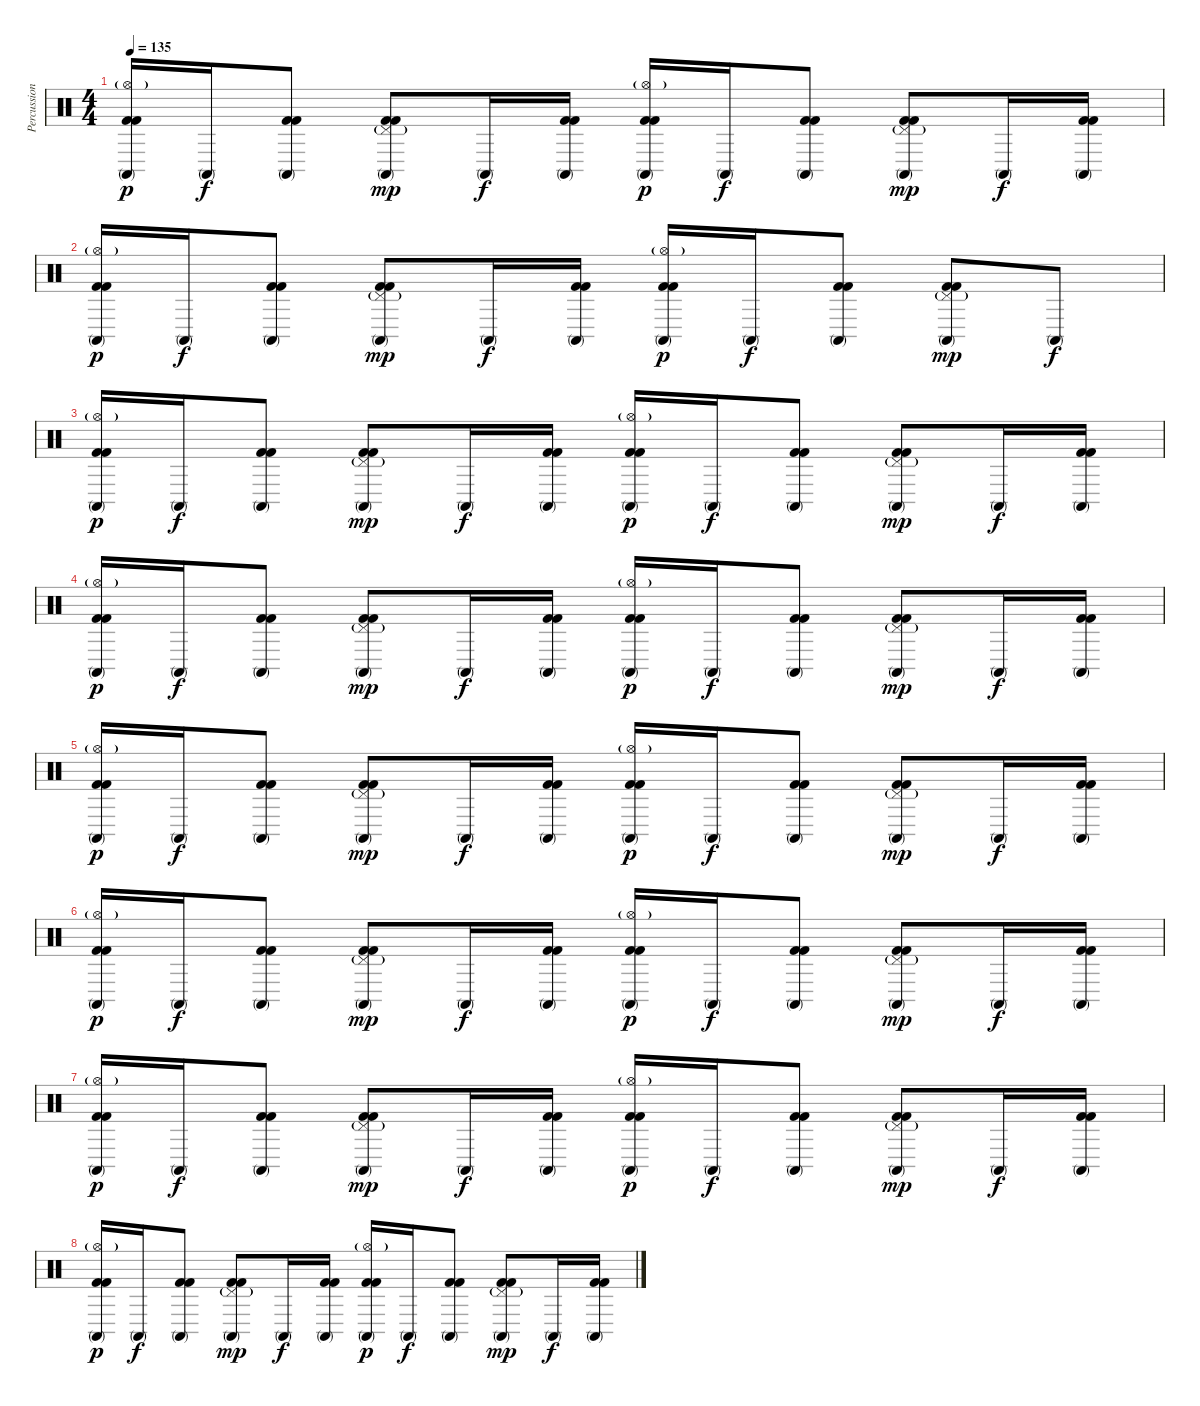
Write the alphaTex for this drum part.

\track ("Percussion" "Percussion") {instrument percussion}
\staff {score}
\articulation defaults
\ts (4 4)
\tempo 135
\clef neutral
\ks c
("Conga high (mute)" "Hi-Hat (open)"{g} "Kick (hit) 2" "Kick (hit) 2").16{dy p} "Conga high (mute)".16{dy f} ("Conga high (mute)" "Kick (hit) 2" "Kick (hit) 2").8 ("Conga high (mute)" "Pedal Hi-Hat (hit)"{g} "Kick (hit) 2" "Kick (hit) 2").8{dy mp} "Conga high (mute)".16{dy f} ("Conga high (mute)" "Kick (hit) 2" "Kick (hit) 2").16 ("Conga high (mute)" "Hi-Hat (open)"{g} "Kick (hit) 2" "Kick (hit) 2").16{dy p} "Conga high (mute)".16{dy f} ("Conga high (mute)" "Kick (hit) 2" "Kick (hit) 2").8 ("Conga high (mute)" "Pedal Hi-Hat (hit)"{g} "Kick (hit) 2" "Kick (hit) 2").8{dy mp} "Conga high (mute)".16{dy f} ("Conga high (mute)" "Kick (hit) 2" "Kick (hit) 2").16 |
("Conga high (mute)" "Hi-Hat (open)"{g} "Kick (hit) 2" "Kick (hit) 2").16{dy p} "Conga high (mute)".16{dy f} ("Conga high (mute)" "Kick (hit) 2" "Kick (hit) 2").8 ("Conga high (mute)" "Pedal Hi-Hat (hit)"{g} "Kick (hit) 2" "Kick (hit) 2").8{dy mp} "Conga high (mute)".16{dy f} ("Conga high (mute)" "Kick (hit) 2" "Kick (hit) 2").16 ("Conga high (mute)" "Hi-Hat (open)"{g} "Kick (hit) 2" "Kick (hit) 2").16{dy p} "Conga high (mute)".16{dy f} ("Conga high (mute)" "Kick (hit) 2" "Kick (hit) 2").8 ("Conga high (mute)" "Pedal Hi-Hat (hit)"{g} "Kick (hit) 2" "Kick (hit) 2").8{dy mp} "Conga high (mute)".8{dy f} |
("Conga high (mute)" "Hi-Hat (open)"{g} "Kick (hit) 2" "Kick (hit) 2").16{dy p} "Conga high (mute)".16{dy f} ("Conga high (mute)" "Kick (hit) 2" "Kick (hit) 2").8 ("Conga high (mute)" "Pedal Hi-Hat (hit)"{g} "Kick (hit) 2" "Kick (hit) 2").8{dy mp} "Conga high (mute)".16{dy f} ("Conga high (mute)" "Kick (hit) 2" "Kick (hit) 2").16 ("Conga high (mute)" "Hi-Hat (open)"{g} "Kick (hit) 2" "Kick (hit) 2").16{dy p} "Conga high (mute)".16{dy f} ("Conga high (mute)" "Kick (hit) 2" "Kick (hit) 2").8 ("Conga high (mute)" "Pedal Hi-Hat (hit)"{g} "Kick (hit) 2" "Kick (hit) 2").8{dy mp} "Conga high (mute)".16{dy f} ("Conga high (mute)" "Kick (hit) 2" "Kick (hit) 2").16 |
("Conga high (mute)" "Hi-Hat (open)"{g} "Kick (hit) 2" "Kick (hit) 2").16{dy p} "Conga high (mute)".16{dy f} ("Conga high (mute)" "Kick (hit) 2" "Kick (hit) 2").8 ("Conga high (mute)" "Pedal Hi-Hat (hit)"{g} "Kick (hit) 2" "Kick (hit) 2").8{dy mp} "Conga high (mute)".16{dy f} ("Conga high (mute)" "Kick (hit) 2" "Kick (hit) 2").16 ("Conga high (mute)" "Hi-Hat (open)"{g} "Kick (hit) 2" "Kick (hit) 2").16{dy p} "Conga high (mute)".16{dy f} ("Conga high (mute)" "Kick (hit) 2" "Kick (hit) 2").8 ("Conga high (mute)" "Pedal Hi-Hat (hit)"{g} "Kick (hit) 2" "Kick (hit) 2").8{dy mp} "Conga high (mute)".16{dy f} ("Conga high (mute)" "Kick (hit) 2" "Kick (hit) 2").16 |
("Conga high (mute)" "Hi-Hat (open)"{g} "Kick (hit) 2" "Kick (hit) 2").16{dy p} "Conga high (mute)".16{dy f} ("Conga high (mute)" "Kick (hit) 2" "Kick (hit) 2").8 ("Conga high (mute)" "Pedal Hi-Hat (hit)"{g} "Kick (hit) 2" "Kick (hit) 2").8{dy mp} "Conga high (mute)".16{dy f} ("Conga high (mute)" "Kick (hit) 2" "Kick (hit) 2").16 ("Conga high (mute)" "Hi-Hat (open)"{g} "Kick (hit) 2" "Kick (hit) 2").16{dy p} "Conga high (mute)".16{dy f} ("Conga high (mute)" "Kick (hit) 2" "Kick (hit) 2").8 ("Conga high (mute)" "Pedal Hi-Hat (hit)"{g} "Kick (hit) 2" "Kick (hit) 2").8{dy mp} "Conga high (mute)".16{dy f} ("Conga high (mute)" "Kick (hit) 2" "Kick (hit) 2").16 |
("Conga high (mute)" "Hi-Hat (open)"{g} "Kick (hit) 2" "Kick (hit) 2").16{dy p} "Conga high (mute)".16{dy f} ("Conga high (mute)" "Kick (hit) 2" "Kick (hit) 2").8 ("Conga high (mute)" "Pedal Hi-Hat (hit)"{g} "Kick (hit) 2" "Kick (hit) 2").8{dy mp} "Conga high (mute)".16{dy f} ("Conga high (mute)" "Kick (hit) 2" "Kick (hit) 2").16 ("Conga high (mute)" "Hi-Hat (open)"{g} "Kick (hit) 2" "Kick (hit) 2").16{dy p} "Conga high (mute)".16{dy f} ("Conga high (mute)" "Kick (hit) 2" "Kick (hit) 2").8 ("Conga high (mute)" "Pedal Hi-Hat (hit)"{g} "Kick (hit) 2" "Kick (hit) 2").8{dy mp} "Conga high (mute)".16{dy f} ("Conga high (mute)" "Kick (hit) 2" "Kick (hit) 2").16 |
("Conga high (mute)" "Hi-Hat (open)"{g} "Kick (hit) 2" "Kick (hit) 2").16{dy p} "Conga high (mute)".16{dy f} ("Conga high (mute)" "Kick (hit) 2" "Kick (hit) 2").8 ("Conga high (mute)" "Pedal Hi-Hat (hit)"{g} "Kick (hit) 2" "Kick (hit) 2").8{dy mp} "Conga high (mute)".16{dy f} ("Conga high (mute)" "Kick (hit) 2" "Kick (hit) 2").16 ("Conga high (mute)" "Hi-Hat (open)"{g} "Kick (hit) 2" "Kick (hit) 2").16{dy p} "Conga high (mute)".16{dy f} ("Conga high (mute)" "Kick (hit) 2" "Kick (hit) 2").8 ("Conga high (mute)" "Pedal Hi-Hat (hit)"{g} "Kick (hit) 2" "Kick (hit) 2").8{dy mp} "Conga high (mute)".16{dy f} ("Conga high (mute)" "Kick (hit) 2" "Kick (hit) 2").16 |
("Conga high (mute)" "Hi-Hat (open)"{g} "Kick (hit) 2" "Kick (hit) 2").16{dy p} "Conga high (mute)".16{dy f} ("Conga high (mute)" "Kick (hit) 2" "Kick (hit) 2").8 ("Conga high (mute)" "Pedal Hi-Hat (hit)"{g} "Kick (hit) 2" "Kick (hit) 2").8{dy mp} "Conga high (mute)".16{dy f} ("Conga high (mute)" "Kick (hit) 2" "Kick (hit) 2").16 ("Conga high (mute)" "Hi-Hat (open)"{g} "Kick (hit) 2" "Kick (hit) 2").16{dy p} "Conga high (mute)".16{dy f} ("Conga high (mute)" "Kick (hit) 2" "Kick (hit) 2").8 ("Conga high (mute)" "Pedal Hi-Hat (hit)"{g} "Kick (hit) 2" "Kick (hit) 2").8{dy mp} "Conga high (mute)".16{dy f} ("Conga high (mute)" "Kick (hit) 2" "Kick (hit) 2").16
